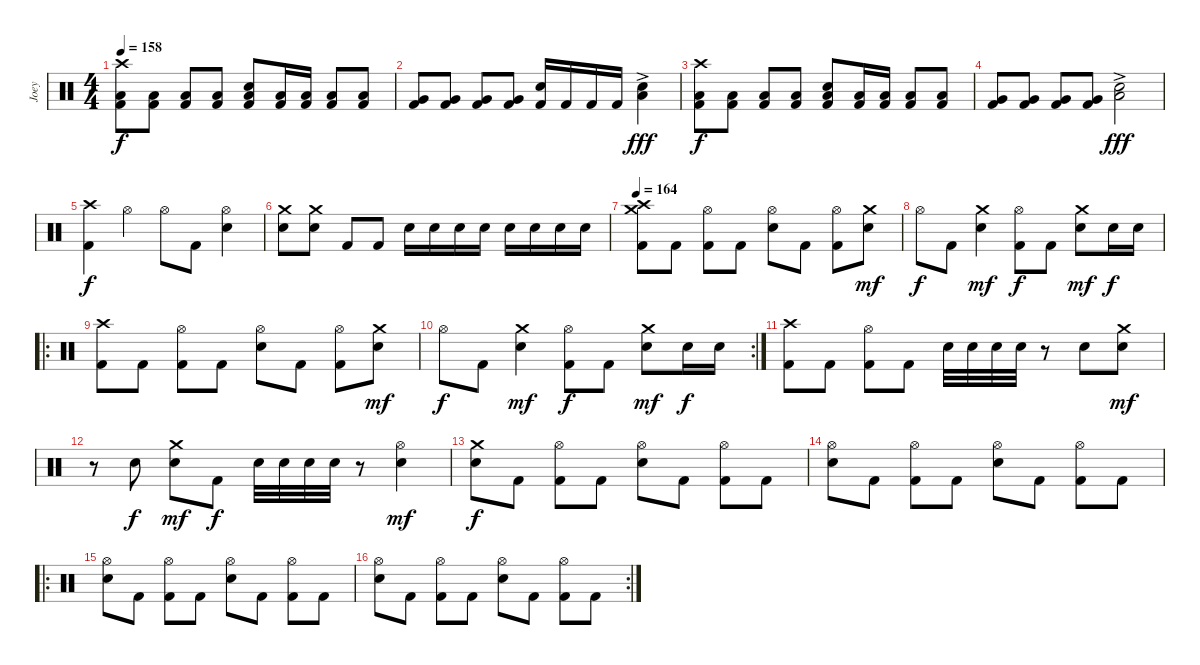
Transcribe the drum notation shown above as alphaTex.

\track ("Joey" "Joey") {instrument percussion}
\staff {score}
\articulation defaults
\ts (4 4)
\tempo 158
\clef neutral
\ks c
("Crash high (hit)" "Low Floor Tom (hit)" "Kick (hit) 2").8{dy f} ("Low Floor Tom (hit)" "Kick (hit) 2").8 ("Low Floor Tom (hit)" "Kick (hit) 2").8 ("Low Floor Tom (hit)" "Kick (hit) 2").8 ("Electric Snare (hit)" "Low Floor Tom (hit)" "Kick (hit) 2").8 ("Low Tom (hit)" "Kick (hit) 2").16 ("Low Tom (hit)" "Kick (hit) 2").16 ("Low Tom (hit)" "Kick (hit) 2").8 ("Low Tom (hit)" "Kick (hit) 2").8 |
("Very Low Tom (hit)" "Kick (hit) 2").8 ("Very Low Tom (hit)" "Kick (hit) 2").8 ("Very Low Tom (hit)" "Kick (hit) 2").8 ("Very Low Tom (hit)" "Kick (hit) 2").8 ("Electric Snare (hit)" "Kick (hit) 2").16 "Kick (hit) 2".16 "Kick (hit) 2".16 "Kick (hit) 2".16 ("Electric Snare (hit)" "Low Floor Tom (hit)"{ac}).4{dy fff} |
("Crash high (hit)" "Low Floor Tom (hit)" "Kick (hit) 2").8{dy f} ("Low Floor Tom (hit)" "Kick (hit) 2").8 ("Low Floor Tom (hit)" "Kick (hit) 2").8 ("Low Floor Tom (hit)" "Kick (hit) 2").8 ("Electric Snare (hit)" "Low Floor Tom (hit)" "Kick (hit) 2").8 ("Low Tom (hit)" "Kick (hit) 2").16 ("Low Tom (hit)" "Kick (hit) 2").16 ("Low Tom (hit)" "Kick (hit) 2").8 ("Low Tom (hit)" "Kick (hit) 2").8 |
("Very Low Tom (hit)" "Kick (hit) 2").8 ("Very Low Tom (hit)" "Kick (hit) 2").8 ("Very Low Tom (hit)" "Kick (hit) 2").8 ("Very Low Tom (hit)" "Kick (hit) 2").8 ("Electric Snare (hit)" "Low Floor Tom (hit)"{ac}).2{dy fff} |
("Crash high (hit)" "Kick (hit) 2").4{dy f} "Hi-Hat (open)".4 "Hi-Hat (open)".8 "Kick (hit) 2".8 ("Hi-Hat (open)" "Electric Snare (hit)").4 |
("Crash medium (hit)" "Electric Snare (hit)").8 ("Crash medium (hit)" "Electric Snare (hit)").8 "Kick (hit) 2".8 "Kick (hit) 2".8 "Electric Snare (hit)".16 "Electric Snare (hit)".16 "Electric Snare (hit)".16 "Electric Snare (hit)".16 "Electric Snare (hit)".16 "Electric Snare (hit)".16 "Electric Snare (hit)".16 "Electric Snare (hit)".16 |
\tempo 164
("Crash high (hit)" "Crash medium (hit)" "Kick (hit) 2").8 "Kick (hit) 2".8 ("Hi-Hat (open)" "Kick (hit) 2").8 "Kick (hit) 2".8 ("Hi-Hat (open)" "Electric Snare (hit)").8 "Kick (hit) 2".8 ("Hi-Hat (open)" "Kick (hit) 2").8 ("Crash medium (hit)" "Electric Snare (hit)").8{dy mf} |
"Hi-Hat (open)".8{dy f} "Kick (hit) 2".8 ("Crash medium (hit)" "Electric Snare (hit)").4{dy mf} ("Hi-Hat (open)" "Kick (hit) 2").8{dy f} "Kick (hit) 2".8 ("Crash medium (hit)" "Electric Snare (hit)").8{dy mf} "Electric Snare (hit)".16{dy f} "Electric Snare (hit)".16 |
\ro
("Crash high (hit)" "Kick (hit) 2").8 "Kick (hit) 2".8 ("Hi-Hat (open)" "Kick (hit) 2").8 "Kick (hit) 2".8 ("Hi-Hat (open)" "Electric Snare (hit)").8 "Kick (hit) 2".8 ("Hi-Hat (open)" "Kick (hit) 2").8 ("Crash medium (hit)" "Electric Snare (hit)").8{dy mf} |
\rc 2 "Hi-Hat (open)".8{dy f} "Kick (hit) 2".8
("Crash medium (hit)" "Electric Snare (hit)").4{dy mf} ("Hi-Hat (open)" "Kick (hit) 2").8{dy f} "Kick (hit) 2".8 ("Crash medium (hit)" "Electric Snare (hit)").8{dy mf} "Electric Snare (hit)".16{dy f} "Electric Snare (hit)".16 |
("Crash high (hit)" "Kick (hit) 2").8 "Kick (hit) 2".8 ("Hi-Hat (open)" "Kick (hit) 2").8 "Kick (hit) 2".8 "Electric Snare (hit)".32 "Electric Snare (hit)".32 "Electric Snare (hit)".32 "Electric Snare (hit)".32 r.8 "Electric Snare (hit)".8 ("Crash medium (hit)" "Electric Snare (hit)").8{dy mf} |
r.8 "Electric Snare (hit)".8{dy f} ("Crash medium (hit)" "Electric Snare (hit)").8{dy mf} "Kick (hit) 2".8{dy f} "Electric Snare (hit)".32 "Electric Snare (hit)".32 "Electric Snare (hit)".32 "Electric Snare (hit)".32 r.8 ("Hi-Hat (open)" "Electric Snare (hit)").4{dy mf} |
("Crash medium (hit)" "Electric Snare (hit)").8{dy f} "Kick (hit) 2".8 ("Hi-Hat (open)" "Kick (hit) 2").8 "Kick (hit) 2".8 ("Hi-Hat (open)" "Electric Snare (hit)").8 "Kick (hit) 2".8 ("Hi-Hat (open)" "Kick (hit) 2").8 "Kick (hit) 2".8 |
("Hi-Hat (open)" "Electric Snare (hit)").8 "Kick (hit) 2".8 ("Hi-Hat (open)" "Kick (hit) 2").8 "Kick (hit) 2".8 ("Hi-Hat (open)" "Electric Snare (hit)").8 "Kick (hit) 2".8 ("Hi-Hat (open)" "Kick (hit) 2").8 "Kick (hit) 2".8 |
\ro
("Hi-Hat (open)" "Electric Snare (hit)").8 "Kick (hit) 2".8 ("Hi-Hat (open)" "Kick (hit) 2").8 "Kick (hit) 2".8 ("Hi-Hat (open)" "Electric Snare (hit)").8 "Kick (hit) 2".8 ("Hi-Hat (open)" "Kick (hit) 2").8 "Kick (hit) 2".8 |
\rc 2
("Hi-Hat (open)" "Electric Snare (hit)").8 "Kick (hit) 2".8 ("Hi-Hat (open)" "Kick (hit) 2").8 "Kick (hit) 2".8 ("Hi-Hat (open)" "Electric Snare (hit)").8 "Kick (hit) 2".8 ("Hi-Hat (open)" "Kick (hit) 2").8 "Kick (hit) 2".8
